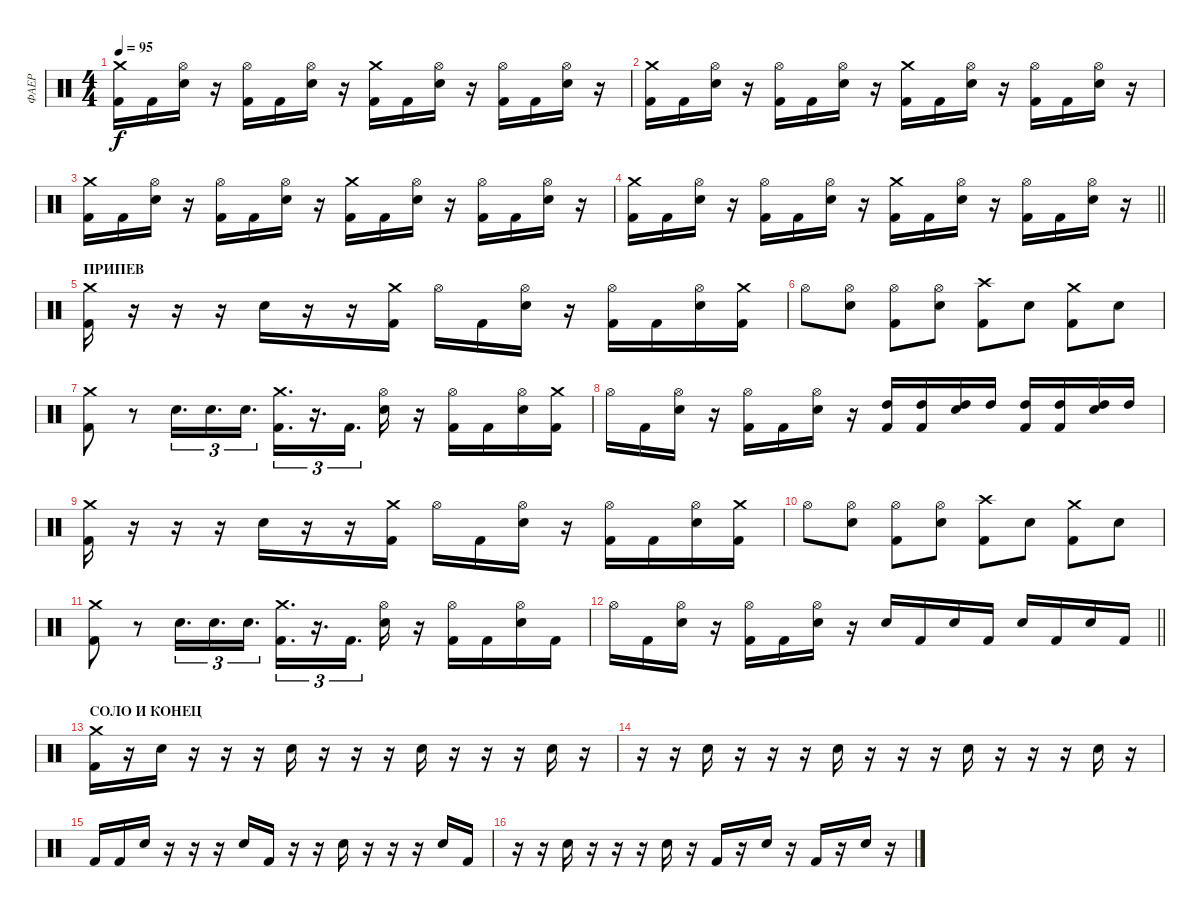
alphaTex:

\track ("ФАЕР" "ФАЕР") {instrument percussion}
\staff {score}
\articulation defaults
\ts (4 4)
\tempo 95
\clef neutral
\ks c
("Crash medium (hit)" "Kick (hit) 2").16{dy f} "Kick (hit) 2".16 ("Hi-Hat (open)" "Electric Snare (hit)").16 r.16 ("Hi-Hat (open)" "Kick (hit) 2").16 "Kick (hit) 2".16 ("Hi-Hat (open)" "Electric Snare (hit)").16 r.16 ("Crash medium (hit)" "Kick (hit) 2").16 "Kick (hit) 2".16 ("Hi-Hat (open)" "Electric Snare (hit)").16 r.16 ("Hi-Hat (open)" "Kick (hit) 2").16 "Kick (hit) 2".16 ("Hi-Hat (open)" "Electric Snare (hit)").16 r.16 |
("Crash medium (hit)" "Kick (hit) 2").16 "Kick (hit) 2".16 ("Hi-Hat (open)" "Electric Snare (hit)").16 r.16 ("Hi-Hat (open)" "Kick (hit) 2").16 "Kick (hit) 2".16 ("Hi-Hat (open)" "Electric Snare (hit)").16 r.16 ("Crash medium (hit)" "Kick (hit) 2").16 "Kick (hit) 2".16 ("Hi-Hat (open)" "Electric Snare (hit)").16 r.16 ("Hi-Hat (open)" "Kick (hit) 2").16 "Kick (hit) 2".16 ("Hi-Hat (open)" "Electric Snare (hit)").16 r.16 |
("Crash medium (hit)" "Kick (hit) 2").16 "Kick (hit) 2".16 ("Hi-Hat (open)" "Electric Snare (hit)").16 r.16 ("Hi-Hat (open)" "Kick (hit) 2").16 "Kick (hit) 2".16 ("Hi-Hat (open)" "Electric Snare (hit)").16 r.16 ("Crash medium (hit)" "Kick (hit) 2").16 "Kick (hit) 2".16 ("Hi-Hat (open)" "Electric Snare (hit)").16 r.16 ("Hi-Hat (open)" "Kick (hit) 2").16 "Kick (hit) 2".16 ("Hi-Hat (open)" "Electric Snare (hit)").16 r.16 |
\barLineRight lightlight
("Crash medium (hit)" "Kick (hit) 2").16 "Kick (hit) 2".16 ("Hi-Hat (open)" "Electric Snare (hit)").16 r.16 ("Hi-Hat (open)" "Kick (hit) 2").16 "Kick (hit) 2".16 ("Hi-Hat (open)" "Electric Snare (hit)").16 r.16 ("Crash medium (hit)" "Kick (hit) 2").16 "Kick (hit) 2".16 ("Hi-Hat (open)" "Electric Snare (hit)").16 r.16 ("Hi-Hat (open)" "Kick (hit) 2").16 "Kick (hit) 2".16 ("Hi-Hat (open)" "Electric Snare (hit)").16 r.16 |
\section ("" "ПРИПЕВ")
("Crash medium (hit)" "Kick (hit) 2").16 r.16 r.16 r.16 "Electric Snare (hit)".16 r.16 r.16 ("Crash medium (hit)" "Kick (hit) 2").16 "Hi-Hat (open)".16 "Kick (hit) 2".16 ("Hi-Hat (open)" "Electric Snare (hit)").16 r.16 ("Hi-Hat (open)" "Kick (hit) 2").16 "Kick (hit) 2".16 ("Hi-Hat (open)" "Electric Snare (hit)").16 ("Crash medium (hit)" "Kick (hit) 2").16 |
"Hi-Hat (open)".8 ("Hi-Hat (open)" "Electric Snare (hit)").8 ("Hi-Hat (open)" "Kick (hit) 2").8 ("Hi-Hat (open)" "Electric Snare (hit)").8 ("Crash high (hit)" "Kick (hit) 2").8 "Electric Snare (hit)".8 ("Crash medium (hit)" "Kick (hit) 2").8 "Electric Snare (hit)".8 |
("Crash medium (hit)" "Kick (hit) 2").8 r.8 "Electric Snare (hit)".16{d tu (3 2)} "Electric Snare (hit)".16{d tu (3 2)} "Electric Snare (hit)".16{d tu (3 2)} ("Crash medium (hit)" "Kick (hit) 2").16{d tu (3 2)} r.16{d tu (3 2)} "Kick (hit) 2".16{d tu (3 2)} ("Hi-Hat (open)" "Electric Snare (hit)").16 r.16 ("Hi-Hat (open)" "Kick (hit) 2").16 "Kick (hit) 2".16 ("Hi-Hat (open)" "Electric Snare (hit)").16 ("Crash medium (hit)" "Kick (hit) 2").16 |
"Hi-Hat (open)".16 "Kick (hit) 2".16 ("Hi-Hat (open)" "Electric Snare (hit)").16 r.16 ("Hi-Hat (open)" "Kick (hit) 2").16 "Kick (hit) 2".16 ("Hi-Hat (open)" "Electric Snare (hit)").16 r.16 ("High Tom (hit)" "Kick (hit) 2").16 ("High Tom (hit)" "Kick (hit) 2").16 ("High Tom (hit)" "Electric Snare (hit)").16 "High Tom (hit)".16 ("High Tom (hit)" "Kick (hit) 2").16 ("High Tom (hit)" "Kick (hit) 2").16 ("High Tom (hit)" "Electric Snare (hit)").16 "High Tom (hit)".16 |
("Crash medium (hit)" "Kick (hit) 2").16 r.16 r.16 r.16 "Electric Snare (hit)".16 r.16 r.16 ("Crash medium (hit)" "Kick (hit) 2").16 "Hi-Hat (open)".16 "Kick (hit) 2".16 ("Hi-Hat (open)" "Electric Snare (hit)").16 r.16 ("Hi-Hat (open)" "Kick (hit) 2").16 "Kick (hit) 2".16 ("Hi-Hat (open)" "Electric Snare (hit)").16 ("Crash medium (hit)" "Kick (hit) 2").16 |
"Hi-Hat (open)".8 ("Hi-Hat (open)" "Electric Snare (hit)").8 ("Hi-Hat (open)" "Kick (hit) 2").8 ("Hi-Hat (open)" "Electric Snare (hit)").8 ("Crash high (hit)" "Kick (hit) 2").8 "Electric Snare (hit)".8 ("Crash medium (hit)" "Kick (hit) 2").8 "Electric Snare (hit)".8 |
("Crash medium (hit)" "Kick (hit) 2").8 r.8 "Electric Snare (hit)".16{d tu (3 2)} "Electric Snare (hit)".16{d tu (3 2)} "Electric Snare (hit)".16{d tu (3 2)} ("Crash medium (hit)" "Kick (hit) 2").16{d tu (3 2)} r.16{d tu (3 2)} "Kick (hit) 2".16{d tu (3 2)} ("Hi-Hat (open)" "Electric Snare (hit)").16 r.16 ("Hi-Hat (open)" "Kick (hit) 2").16 "Kick (hit) 2".16 ("Hi-Hat (open)" "Electric Snare (hit)").16 "Kick (hit) 2".16 |
\barLineRight lightlight "Hi-Hat (open)".16 "Kick (hit) 2".16
("Hi-Hat (open)" "Electric Snare (hit)").16 r.16 ("Hi-Hat (open)" "Kick (hit) 2").16 "Kick (hit) 2".16 ("Hi-Hat (open)" "Electric Snare (hit)").16 r.16 "Electric Snare (hit)".16 "Kick (hit) 2".16 "Electric Snare (hit)".16 "Kick (hit) 2".16 "Electric Snare (hit)".16 "Kick (hit) 2".16 "Electric Snare (hit)".16 "Kick (hit) 2".16 |
\section ("" "СОЛО И КОНЕЦ")
("Crash medium (hit)" "Kick (hit) 2").16 r.16 "Electric Snare (hit)".16 r.16 r.16 r.16 "Electric Snare (hit)".16 r.16 r.16 r.16 "Electric Snare (hit)".16 r.16 r.16 r.16 "Electric Snare (hit)".16 r.16 |
r.16 r.16 "Electric Snare (hit)".16 r.16 r.16 r.16 "Electric Snare (hit)".16 r.16 r.16 r.16 "Electric Snare (hit)".16 r.16 r.16 r.16 "Electric Snare (hit)".16 r.16 |
"Kick (hit) 2".16 "Kick (hit) 2".16 "Electric Snare (hit)".16 r.16 r.16 r.16 "Electric Snare (hit)".16 "Kick (hit) 2".16 r.16 r.16 "Electric Snare (hit)".16 r.16 r.16 r.16 "Electric Snare (hit)".16 "Kick (hit) 2".16 |
r.16 r.16 "Electric Snare (hit)".16 r.16 r.16 r.16 "Electric Snare (hit)".16 r.16 "Kick (hit) 2".16 r.16 "Electric Snare (hit)".16 r.16 "Kick (hit) 2".16 r.16 "Electric Snare (hit)".16 r.16
